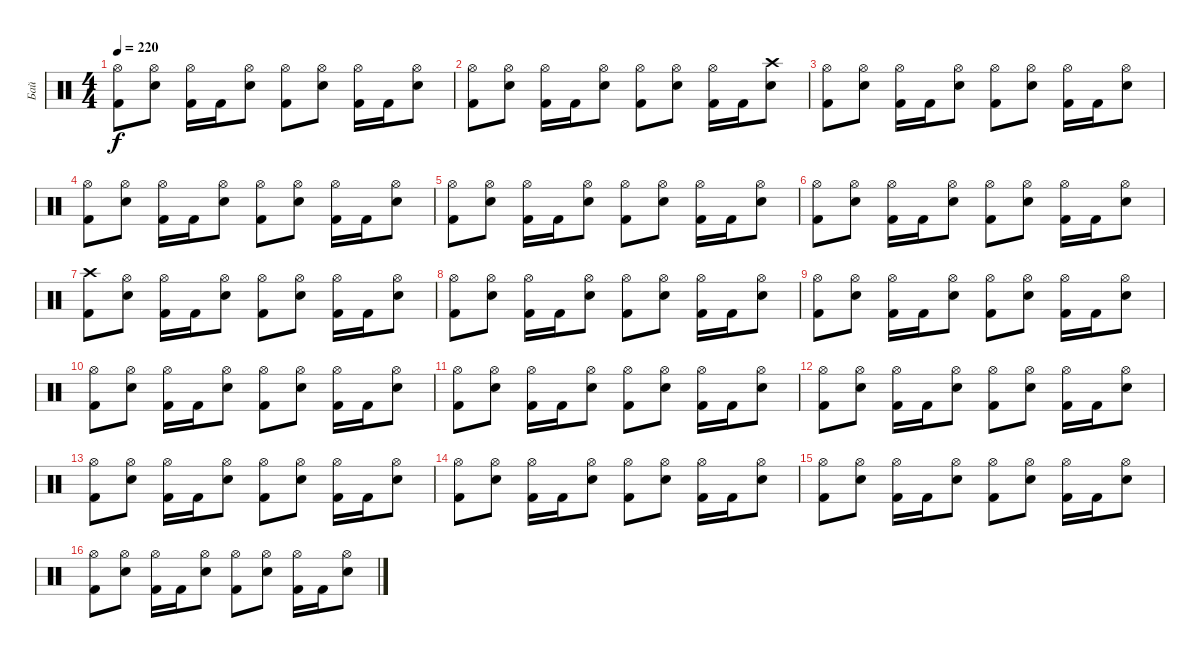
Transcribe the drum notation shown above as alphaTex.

\track ("Бай" "Бай") {instrument percussion}
\staff {score}
\articulation defaults
\ts (4 4)
\tempo 220
\clef neutral
\ks c
("Hi-Hat (open)" "Kick (hit) 2").8{dy f} ("Hi-Hat (open)" "Snare (hit) 2").8 ("Hi-Hat (open)" "Kick (hit) 2").16 "Kick (hit) 2".16 ("Hi-Hat (open)" "Snare (hit) 2").8 ("Hi-Hat (open)" "Kick (hit) 2").8 ("Hi-Hat (open)" "Snare (hit) 2").8 ("Hi-Hat (open)" "Kick (hit) 2").16 "Kick (hit) 2".16 ("Hi-Hat (open)" "Snare (hit) 2").8 |
("Hi-Hat (open)" "Kick (hit) 2").8 ("Hi-Hat (open)" "Snare (hit) 2").8 ("Hi-Hat (open)" "Kick (hit) 2").16 "Kick (hit) 2".16 ("Hi-Hat (open)" "Snare (hit) 2").8 ("Hi-Hat (open)" "Kick (hit) 2").8 ("Hi-Hat (open)" "Snare (hit) 2").8 ("Hi-Hat (open)" "Kick (hit) 2").16 "Kick (hit) 2".16 ("Crash high (hit)" "Snare (hit) 2").8 |
("Hi-Hat (open)" "Kick (hit) 2").8 ("Hi-Hat (open)" "Snare (hit) 2").8 ("Hi-Hat (open)" "Kick (hit) 2").16 "Kick (hit) 2".16 ("Hi-Hat (open)" "Snare (hit) 2").8 ("Hi-Hat (open)" "Kick (hit) 2").8 ("Hi-Hat (open)" "Snare (hit) 2").8 ("Hi-Hat (open)" "Kick (hit) 2").16 "Kick (hit) 2".16 ("Hi-Hat (open)" "Snare (hit) 2").8 |
("Hi-Hat (open)" "Kick (hit) 2").8 ("Hi-Hat (open)" "Snare (hit) 2").8 ("Hi-Hat (open)" "Kick (hit) 2").16 "Kick (hit) 2".16 ("Hi-Hat (open)" "Snare (hit) 2").8 ("Hi-Hat (open)" "Kick (hit) 2").8 ("Hi-Hat (open)" "Snare (hit) 2").8 ("Hi-Hat (open)" "Kick (hit) 2").16 "Kick (hit) 2".16 ("Hi-Hat (open)" "Snare (hit) 2").8 |
("Hi-Hat (open)" "Kick (hit) 2").8 ("Hi-Hat (open)" "Snare (hit) 2").8 ("Hi-Hat (open)" "Kick (hit) 2").16 "Kick (hit) 2".16 ("Hi-Hat (open)" "Snare (hit) 2").8 ("Hi-Hat (open)" "Kick (hit) 2").8 ("Hi-Hat (open)" "Snare (hit) 2").8 ("Hi-Hat (open)" "Kick (hit) 2").16 "Kick (hit) 2".16 ("Hi-Hat (open)" "Snare (hit) 2").8 |
("Hi-Hat (open)" "Kick (hit) 2").8 ("Hi-Hat (open)" "Snare (hit) 2").8 ("Hi-Hat (open)" "Kick (hit) 2").16 "Kick (hit) 2".16 ("Hi-Hat (open)" "Snare (hit) 2").8 ("Hi-Hat (open)" "Kick (hit) 2").8 ("Hi-Hat (open)" "Snare (hit) 2").8 ("Hi-Hat (open)" "Kick (hit) 2").16 "Kick (hit) 2".16 ("Hi-Hat (open)" "Snare (hit) 2").8 |
("Crash high (hit)" "Kick (hit) 2").8 ("Hi-Hat (open)" "Snare (hit) 2").8 ("Hi-Hat (open)" "Kick (hit) 2").16 "Kick (hit) 2".16 ("Hi-Hat (open)" "Snare (hit) 2").8 ("Hi-Hat (open)" "Kick (hit) 2").8 ("Hi-Hat (open)" "Snare (hit) 2").8 ("Hi-Hat (open)" "Kick (hit) 2").16 "Kick (hit) 2".16 ("Hi-Hat (open)" "Snare (hit) 2").8 |
("Hi-Hat (open)" "Kick (hit) 2").8 ("Hi-Hat (open)" "Snare (hit) 2").8 ("Hi-Hat (open)" "Kick (hit) 2").16 "Kick (hit) 2".16 ("Hi-Hat (open)" "Snare (hit) 2").8 ("Hi-Hat (open)" "Kick (hit) 2").8 ("Hi-Hat (open)" "Snare (hit) 2").8 ("Hi-Hat (open)" "Kick (hit) 2").16 "Kick (hit) 2".16 ("Hi-Hat (open)" "Snare (hit) 2").8 |
("Hi-Hat (open)" "Kick (hit) 2").8 ("Hi-Hat (open)" "Snare (hit) 2").8 ("Hi-Hat (open)" "Kick (hit) 2").16 "Kick (hit) 2".16 ("Hi-Hat (open)" "Snare (hit) 2").8 ("Hi-Hat (open)" "Kick (hit) 2").8 ("Hi-Hat (open)" "Snare (hit) 2").8 ("Hi-Hat (open)" "Kick (hit) 2").16 "Kick (hit) 2".16 ("Hi-Hat (open)" "Snare (hit) 2").8 |
("Hi-Hat (open)" "Kick (hit) 2").8 ("Hi-Hat (open)" "Snare (hit) 2").8 ("Hi-Hat (open)" "Kick (hit) 2").16 "Kick (hit) 2".16 ("Hi-Hat (open)" "Snare (hit) 2").8 ("Hi-Hat (open)" "Kick (hit) 2").8 ("Hi-Hat (open)" "Snare (hit) 2").8 ("Hi-Hat (open)" "Kick (hit) 2").16 "Kick (hit) 2".16 ("Hi-Hat (open)" "Snare (hit) 2").8 |
("Hi-Hat (open)" "Kick (hit) 2").8 ("Hi-Hat (open)" "Snare (hit) 2").8 ("Hi-Hat (open)" "Kick (hit) 2").16 "Kick (hit) 2".16 ("Hi-Hat (open)" "Snare (hit) 2").8 ("Hi-Hat (open)" "Kick (hit) 2").8 ("Hi-Hat (open)" "Snare (hit) 2").8 ("Hi-Hat (open)" "Kick (hit) 2").16 "Kick (hit) 2".16 ("Hi-Hat (open)" "Snare (hit) 2").8 |
("Hi-Hat (open)" "Kick (hit) 2").8 ("Hi-Hat (open)" "Snare (hit) 2").8 ("Hi-Hat (open)" "Kick (hit) 2").16 "Kick (hit) 2".16 ("Hi-Hat (open)" "Snare (hit) 2").8 ("Hi-Hat (open)" "Kick (hit) 2").8 ("Hi-Hat (open)" "Snare (hit) 2").8 ("Hi-Hat (open)" "Kick (hit) 2").16 "Kick (hit) 2".16 ("Hi-Hat (open)" "Snare (hit) 2").8 |
("Hi-Hat (open)" "Kick (hit) 2").8 ("Hi-Hat (open)" "Snare (hit) 2").8 ("Hi-Hat (open)" "Kick (hit) 2").16 "Kick (hit) 2".16 ("Hi-Hat (open)" "Snare (hit) 2").8 ("Hi-Hat (open)" "Kick (hit) 2").8 ("Hi-Hat (open)" "Snare (hit) 2").8 ("Hi-Hat (open)" "Kick (hit) 2").16 "Kick (hit) 2".16 ("Hi-Hat (open)" "Snare (hit) 2").8 |
("Hi-Hat (open)" "Kick (hit) 2").8 ("Hi-Hat (open)" "Snare (hit) 2").8 ("Hi-Hat (open)" "Kick (hit) 2").16 "Kick (hit) 2".16 ("Hi-Hat (open)" "Snare (hit) 2").8 ("Hi-Hat (open)" "Kick (hit) 2").8 ("Hi-Hat (open)" "Snare (hit) 2").8 ("Hi-Hat (open)" "Kick (hit) 2").16 "Kick (hit) 2".16 ("Hi-Hat (open)" "Snare (hit) 2").8 |
("Hi-Hat (open)" "Kick (hit) 2").8 ("Hi-Hat (open)" "Snare (hit) 2").8 ("Hi-Hat (open)" "Kick (hit) 2").16 "Kick (hit) 2".16 ("Hi-Hat (open)" "Snare (hit) 2").8 ("Hi-Hat (open)" "Kick (hit) 2").8 ("Hi-Hat (open)" "Snare (hit) 2").8 ("Hi-Hat (open)" "Kick (hit) 2").16 "Kick (hit) 2".16 ("Hi-Hat (open)" "Snare (hit) 2").8 |
("Hi-Hat (open)" "Kick (hit) 2").8 ("Hi-Hat (open)" "Snare (hit) 2").8 ("Hi-Hat (open)" "Kick (hit) 2").16 "Kick (hit) 2".16 ("Hi-Hat (open)" "Snare (hit) 2").8 ("Hi-Hat (open)" "Kick (hit) 2").8 ("Hi-Hat (open)" "Snare (hit) 2").8 ("Hi-Hat (open)" "Kick (hit) 2").16 "Kick (hit) 2".16 ("Hi-Hat (open)" "Snare (hit) 2").8
